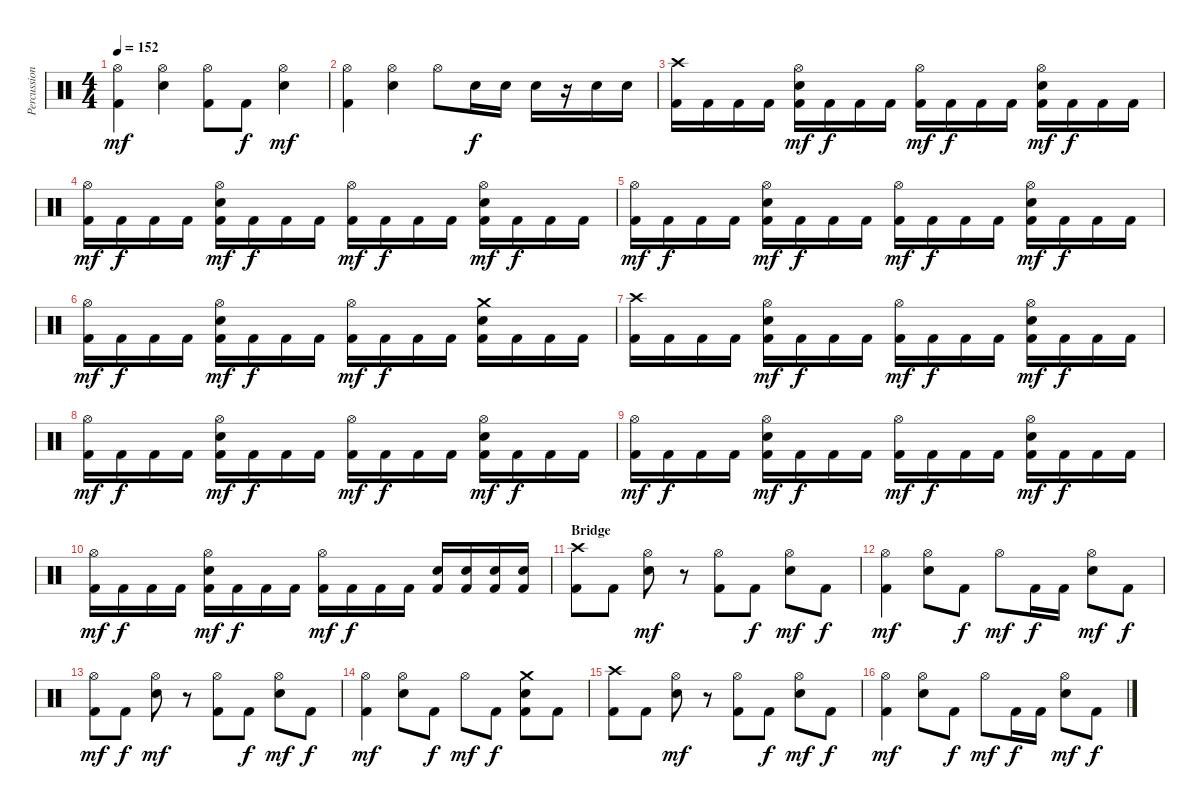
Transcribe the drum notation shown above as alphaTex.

\track ("Percussion" "Percussion") {instrument percussion}
\staff {score}
\articulation defaults
\ts (4 4)
\tempo 152
\clef neutral
\ks c
("Hi-Hat (open)" "Kick (hit) 2").4{dy mf} ("Hi-Hat (open)" "Electric Snare (hit)").4 ("Hi-Hat (open)" "Kick (hit) 2").8 "Kick (hit) 2".8{dy f} ("Hi-Hat (open)" "Electric Snare (hit)").4{dy mf} |
("Hi-Hat (open)" "Kick (hit) 2").4 ("Hi-Hat (open)" "Electric Snare (hit)").4 "Hi-Hat (open)".8 "Electric Snare (hit)".16{dy f} "Electric Snare (hit)".16 "Electric Snare (hit)".16 r.16 "Electric Snare (hit)".16 "Electric Snare (hit)".16 |
("Crash high (hit)" "Kick (hit) 2").16 "Kick (hit) 2".16 "Kick (hit) 2".16 "Kick (hit) 2".16 ("Hi-Hat (open)" "Electric Snare (hit)" "Kick (hit) 2").16{dy mf} "Kick (hit) 2".16{dy f} "Kick (hit) 2".16 "Kick (hit) 2".16 ("Hi-Hat (open)" "Kick (hit) 2").16{dy mf} "Kick (hit) 2".16{dy f} "Kick (hit) 2".16 "Kick (hit) 2".16 ("Hi-Hat (open)" "Electric Snare (hit)" "Kick (hit) 2").16{dy mf} "Kick (hit) 2".16{dy f} "Kick (hit) 2".16 "Kick (hit) 2".16 |
("Hi-Hat (open)" "Kick (hit) 2").16{dy mf} "Kick (hit) 2".16{dy f} "Kick (hit) 2".16 "Kick (hit) 2".16 ("Hi-Hat (open)" "Electric Snare (hit)" "Kick (hit) 2").16{dy mf} "Kick (hit) 2".16{dy f} "Kick (hit) 2".16 "Kick (hit) 2".16 ("Hi-Hat (open)" "Kick (hit) 2").16{dy mf} "Kick (hit) 2".16{dy f} "Kick (hit) 2".16 "Kick (hit) 2".16 ("Hi-Hat (open)" "Electric Snare (hit)" "Kick (hit) 2").16{dy mf} "Kick (hit) 2".16{dy f} "Kick (hit) 2".16 "Kick (hit) 2".16 |
("Hi-Hat (open)" "Kick (hit) 2").16{dy mf} "Kick (hit) 2".16{dy f} "Kick (hit) 2".16 "Kick (hit) 2".16 ("Hi-Hat (open)" "Electric Snare (hit)" "Kick (hit) 2").16{dy mf} "Kick (hit) 2".16{dy f} "Kick (hit) 2".16 "Kick (hit) 2".16 ("Hi-Hat (open)" "Kick (hit) 2").16{dy mf} "Kick (hit) 2".16{dy f} "Kick (hit) 2".16 "Kick (hit) 2".16 ("Hi-Hat (open)" "Electric Snare (hit)" "Kick (hit) 2").16{dy mf} "Kick (hit) 2".16{dy f} "Kick (hit) 2".16 "Kick (hit) 2".16 |
("Hi-Hat (open)" "Kick (hit) 2").16{dy mf} "Kick (hit) 2".16{dy f} "Kick (hit) 2".16 "Kick (hit) 2".16 ("Hi-Hat (open)" "Electric Snare (hit)" "Kick (hit) 2").16{dy mf} "Kick (hit) 2".16{dy f} "Kick (hit) 2".16 "Kick (hit) 2".16 ("Hi-Hat (open)" "Kick (hit) 2").16{dy mf} "Kick (hit) 2".16{dy f} "Kick (hit) 2".16 "Kick (hit) 2".16 ("Crash medium (hit)" "Electric Snare (hit)" "Kick (hit) 2").16 "Kick (hit) 2".16 "Kick (hit) 2".16 "Kick (hit) 2".16 |
("Crash high (hit)" "Kick (hit) 2").16 "Kick (hit) 2".16 "Kick (hit) 2".16 "Kick (hit) 2".16 ("Hi-Hat (open)" "Electric Snare (hit)" "Kick (hit) 2").16{dy mf} "Kick (hit) 2".16{dy f} "Kick (hit) 2".16 "Kick (hit) 2".16 ("Hi-Hat (open)" "Kick (hit) 2").16{dy mf} "Kick (hit) 2".16{dy f} "Kick (hit) 2".16 "Kick (hit) 2".16 ("Hi-Hat (open)" "Electric Snare (hit)" "Kick (hit) 2").16{dy mf} "Kick (hit) 2".16{dy f} "Kick (hit) 2".16 "Kick (hit) 2".16 |
("Hi-Hat (open)" "Kick (hit) 2").16{dy mf} "Kick (hit) 2".16{dy f} "Kick (hit) 2".16 "Kick (hit) 2".16 ("Hi-Hat (open)" "Electric Snare (hit)" "Kick (hit) 2").16{dy mf} "Kick (hit) 2".16{dy f} "Kick (hit) 2".16 "Kick (hit) 2".16 ("Hi-Hat (open)" "Kick (hit) 2").16{dy mf} "Kick (hit) 2".16{dy f} "Kick (hit) 2".16 "Kick (hit) 2".16 ("Hi-Hat (open)" "Electric Snare (hit)" "Kick (hit) 2").16{dy mf} "Kick (hit) 2".16{dy f} "Kick (hit) 2".16 "Kick (hit) 2".16 |
("Hi-Hat (open)" "Kick (hit) 2").16{dy mf} "Kick (hit) 2".16{dy f} "Kick (hit) 2".16 "Kick (hit) 2".16 ("Hi-Hat (open)" "Electric Snare (hit)" "Kick (hit) 2").16{dy mf} "Kick (hit) 2".16{dy f} "Kick (hit) 2".16 "Kick (hit) 2".16 ("Hi-Hat (open)" "Kick (hit) 2").16{dy mf} "Kick (hit) 2".16{dy f} "Kick (hit) 2".16 "Kick (hit) 2".16 ("Hi-Hat (open)" "Electric Snare (hit)" "Kick (hit) 2").16{dy mf} "Kick (hit) 2".16{dy f} "Kick (hit) 2".16 "Kick (hit) 2".16 |
("Hi-Hat (open)" "Kick (hit) 2").16{dy mf} "Kick (hit) 2".16{dy f} "Kick (hit) 2".16 "Kick (hit) 2".16 ("Hi-Hat (open)" "Electric Snare (hit)" "Kick (hit) 2").16{dy mf} "Kick (hit) 2".16{dy f} "Kick (hit) 2".16 "Kick (hit) 2".16 ("Hi-Hat (open)" "Kick (hit) 2").16{dy mf} "Kick (hit) 2".16{dy f} "Kick (hit) 2".16 "Kick (hit) 2".16 ("Electric Snare (hit)" "Kick (hit) 2").16 ("Electric Snare (hit)" "Kick (hit) 2").16 ("Electric Snare (hit)" "Kick (hit) 2").16 ("Electric Snare (hit)" "Kick (hit) 2").16 |
\section ("" "Bridge")
("Crash high (hit)" "Kick (hit) 2").8 "Kick (hit) 2".8 ("Hi-Hat (open)" "Electric Snare (hit)").8{dy mf} r.8 ("Hi-Hat (open)" "Kick (hit) 2").8 "Kick (hit) 2".8{dy f} ("Hi-Hat (open)" "Electric Snare (hit)").8{dy mf} "Kick (hit) 2".8{dy f} |
("Hi-Hat (open)" "Kick (hit) 2").4{dy mf} ("Hi-Hat (open)" "Electric Snare (hit)").8 "Kick (hit) 2".8{dy f} "Hi-Hat (open)".8{dy mf} "Kick (hit) 2".16{dy f} "Kick (hit) 2".16 ("Hi-Hat (open)" "Electric Snare (hit)").8{dy mf} "Kick (hit) 2".8{dy f} |
("Hi-Hat (open)" "Kick (hit) 2").8{dy mf} "Kick (hit) 2".8{dy f} ("Hi-Hat (open)" "Electric Snare (hit)").8{dy mf} r.8 ("Hi-Hat (open)" "Kick (hit) 2").8 "Kick (hit) 2".8{dy f} ("Hi-Hat (open)" "Electric Snare (hit)").8{dy mf} "Kick (hit) 2".8{dy f} |
("Hi-Hat (open)" "Kick (hit) 2").4{dy mf} ("Hi-Hat (open)" "Electric Snare (hit)").8 "Kick (hit) 2".8{dy f} "Hi-Hat (open)".8{dy mf} "Kick (hit) 2".8{dy f} ("Crash medium (hit)" "Electric Snare (hit)" "Kick (hit) 2").8 "Kick (hit) 2".8 |
("Crash high (hit)" "Kick (hit) 2").8 "Kick (hit) 2".8 ("Hi-Hat (open)" "Electric Snare (hit)").8{dy mf} r.8 ("Hi-Hat (open)" "Kick (hit) 2").8 "Kick (hit) 2".8{dy f} ("Hi-Hat (open)" "Electric Snare (hit)").8{dy mf} "Kick (hit) 2".8{dy f} |
("Hi-Hat (open)" "Kick (hit) 2").4{dy mf} ("Hi-Hat (open)" "Electric Snare (hit)").8 "Kick (hit) 2".8{dy f} "Hi-Hat (open)".8{dy mf} "Kick (hit) 2".16{dy f} "Kick (hit) 2".16 ("Hi-Hat (open)" "Electric Snare (hit)").8{dy mf} "Kick (hit) 2".8{dy f}
